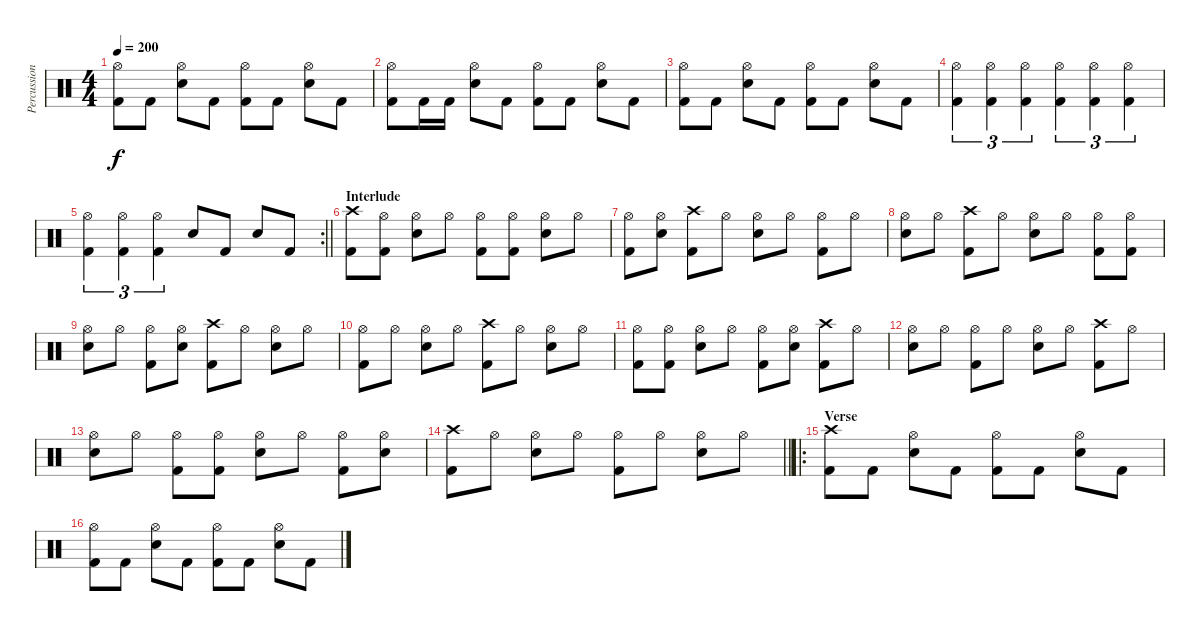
\track ("Percussion" "Percussion") {instrument percussion}
\staff
\articulation defaults
\ts (4 4)
\tempo 200
\clef neutral
\ks c
("Hi-Hat (open)" "Kick (hit) 2").8{dy f} "Kick (hit) 2".8 ("Hi-Hat (open)" "Electric Snare (hit)").8 "Kick (hit) 2".8 ("Hi-Hat (open)" "Kick (hit) 2").8 "Kick (hit) 2".8 ("Hi-Hat (open)" "Electric Snare (hit)").8 "Kick (hit) 2".8 |
("Hi-Hat (open)" "Kick (hit) 2").8 "Kick (hit) 2".16 "Kick (hit) 2".16 ("Hi-Hat (open)" "Electric Snare (hit)").8 "Kick (hit) 2".8 ("Hi-Hat (open)" "Kick (hit) 2").8 "Kick (hit) 2".8 ("Hi-Hat (open)" "Electric Snare (hit)").8 "Kick (hit) 2".8 |
("Hi-Hat (open)" "Kick (hit) 2").8 "Kick (hit) 2".8 ("Hi-Hat (open)" "Electric Snare (hit)").8 "Kick (hit) 2".8 ("Hi-Hat (open)" "Kick (hit) 2").8 "Kick (hit) 2".8 ("Hi-Hat (open)" "Electric Snare (hit)").8 "Kick (hit) 2".8 |
("Hi-Hat (open)" "Kick (hit) 2").4{tu (3 2)} ("Hi-Hat (open)" "Kick (hit) 2").4{tu (3 2)} ("Hi-Hat (open)" "Kick (hit) 2").4{tu (3 2)} ("Hi-Hat (open)" "Kick (hit) 2").4{tu (3 2)} ("Hi-Hat (open)" "Kick (hit) 2").4{tu (3 2)} ("Hi-Hat (open)" "Kick (hit) 2").4{tu (3 2)} |
\rc 2
\barLineRight lightlight
("Hi-Hat (open)" "Kick (hit) 2").4{tu (3 2)} ("Hi-Hat (open)" "Kick (hit) 2").4{tu (3 2)} ("Hi-Hat (open)" "Kick (hit) 2").4{tu (3 2)} "Electric Snare (hit)".8 "Kick (hit) 2".8 "Electric Snare (hit)".8 "Kick (hit) 2".8 |
\section ("" "Interlude")
("Crash high (hit)" "Kick (hit) 2").8 ("Hi-Hat (open)" "Kick (hit) 2").8 ("Hi-Hat (open)" "Electric Snare (hit)").8 "Hi-Hat (open)".8 ("Hi-Hat (open)" "Kick (hit) 2").8 ("Hi-Hat (open)" "Kick (hit) 2").8 ("Hi-Hat (open)" "Electric Snare (hit)").8 "Hi-Hat (open)".8 |
("Hi-Hat (open)" "Kick (hit) 2").8 ("Hi-Hat (open)" "Electric Snare (hit)").8 ("Crash high (hit)" "Kick (hit) 2").8 "Hi-Hat (open)".8 ("Hi-Hat (open)" "Electric Snare (hit)").8 "Hi-Hat (open)".8 ("Hi-Hat (open)" "Kick (hit) 2").8 "Hi-Hat (open)".8 |
("Hi-Hat (open)" "Electric Snare (hit)").8 "Hi-Hat (open)".8 ("Crash high (hit)" "Kick (hit) 2").8 "Hi-Hat (open)".8 ("Hi-Hat (open)" "Electric Snare (hit)").8 "Hi-Hat (open)".8 ("Hi-Hat (open)" "Kick (hit) 2").8 ("Hi-Hat (open)" "Kick (hit) 2").8 |
("Hi-Hat (open)" "Electric Snare (hit)").8 "Hi-Hat (open)".8 ("Hi-Hat (open)" "Kick (hit) 2").8 ("Hi-Hat (open)" "Electric Snare (hit)").8 ("Crash high (hit)" "Kick (hit) 2").8 "Hi-Hat (open)".8 ("Hi-Hat (open)" "Electric Snare (hit)").8 "Hi-Hat (open)".8 |
("Hi-Hat (open)" "Kick (hit) 2").8 "Hi-Hat (open)".8 ("Hi-Hat (open)" "Electric Snare (hit)").8 "Hi-Hat (open)".8 ("Crash high (hit)" "Kick (hit) 2").8 "Hi-Hat (open)".8 ("Hi-Hat (open)" "Electric Snare (hit)").8 "Hi-Hat (open)".8 |
("Hi-Hat (open)" "Kick (hit) 2").8 ("Hi-Hat (open)" "Kick (hit) 2").8 ("Hi-Hat (open)" "Electric Snare (hit)").8 "Hi-Hat (open)".8 ("Hi-Hat (open)" "Kick (hit) 2").8 ("Hi-Hat (open)" "Electric Snare (hit)").8 ("Crash high (hit)" "Kick (hit) 2").8 "Hi-Hat (open)".8 |
("Hi-Hat (open)" "Electric Snare (hit)").8 "Hi-Hat (open)".8 ("Hi-Hat (open)" "Kick (hit) 2").8 "Hi-Hat (open)".8 ("Hi-Hat (open)" "Electric Snare (hit)").8 "Hi-Hat (open)".8 ("Crash high (hit)" "Kick (hit) 2").8 "Hi-Hat (open)".8 |
("Hi-Hat (open)" "Electric Snare (hit)").8 "Hi-Hat (open)".8 ("Hi-Hat (open)" "Kick (hit) 2").8 ("Hi-Hat (open)" "Kick (hit) 2").8 ("Hi-Hat (open)" "Electric Snare (hit)").8 "Hi-Hat (open)".8 ("Hi-Hat (open)" "Kick (hit) 2").8 ("Hi-Hat (open)" "Electric Snare (hit)").8 |
\barLineRight lightlight
("Crash high (hit)" "Kick (hit) 2").8 "Hi-Hat (open)".8 ("Hi-Hat (open)" "Electric Snare (hit)").8 "Hi-Hat (open)".8 ("Hi-Hat (open)" "Kick (hit) 2").8 "Hi-Hat (open)".8 ("Hi-Hat (open)" "Electric Snare (hit)").8 "Hi-Hat (open)".8 |
\ro
\section ("" "Verse")
("Crash high (hit)" "Kick (hit) 2").8 "Kick (hit) 2".8 ("Hi-Hat (open)" "Electric Snare (hit)").8 "Kick (hit) 2".8 ("Hi-Hat (open)" "Kick (hit) 2").8 "Kick (hit) 2".8 ("Hi-Hat (open)" "Electric Snare (hit)").8 "Kick (hit) 2".8 |
("Hi-Hat (open)" "Kick (hit) 2").8 "Kick (hit) 2".8 ("Hi-Hat (open)" "Electric Snare (hit)").8 "Kick (hit) 2".8 ("Hi-Hat (open)" "Kick (hit) 2").8 "Kick (hit) 2".8 ("Hi-Hat (open)" "Electric Snare (hit)").8 "Kick (hit) 2".8
